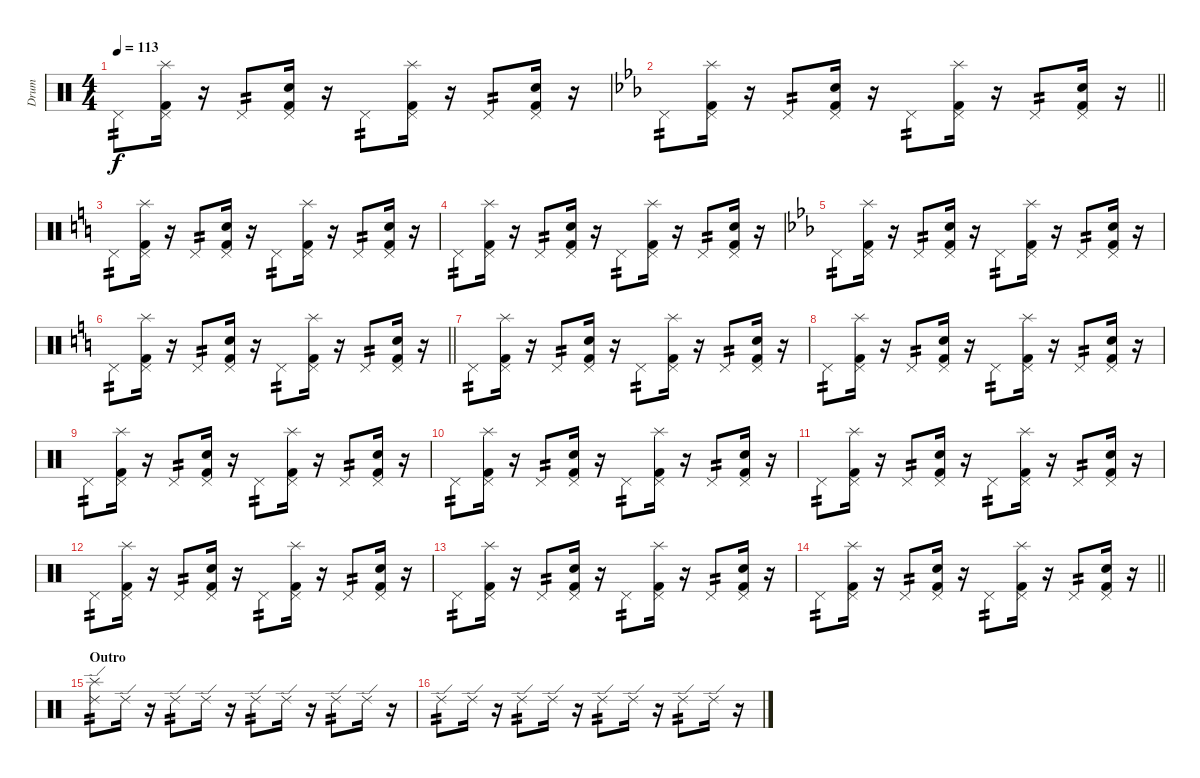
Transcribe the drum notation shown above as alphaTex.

\track ("Drum" "Drum") {instrument percussion}
\staff {score}
\articulation defaults
\ts (4 4)
\tempo 113
\clef neutral
\ks c "Pedal Hi-Hat (hit)".8{tp 2 dy f}
("Pedal Hi-Hat (hit)" "Kick (hit) 2" "Splash (hit)").16 r.16 "Pedal Hi-Hat (hit)".8{tp 2} ("Pedal Hi-Hat (hit)" "Kick (hit) 2" "Snare (hit) 2").16 r.16 "Pedal Hi-Hat (hit)".8{tp 2} ("Pedal Hi-Hat (hit)" "Kick (hit) 2" "Splash (hit)").16 r.16 "Pedal Hi-Hat (hit)".8{tp 2} ("Pedal Hi-Hat (hit)" "Kick (hit) 2" "Snare (hit) 2").16 r.16 |
\barLineRight lightlight
\ks eb "Pedal Hi-Hat (hit)".8{tp 2}
("Pedal Hi-Hat (hit)" "Kick (hit) 2" "Splash (hit)").16 r.16 "Pedal Hi-Hat (hit)".8{tp 2} ("Pedal Hi-Hat (hit)" "Kick (hit) 2" "Snare (hit) 2").16 r.16 "Pedal Hi-Hat (hit)".8{tp 2} ("Pedal Hi-Hat (hit)" "Kick (hit) 2" "Splash (hit)").16 r.16 "Pedal Hi-Hat (hit)".8{tp 2} ("Pedal Hi-Hat (hit)" "Kick (hit) 2" "Snare (hit) 2").16 r.16 |
\ks c "Pedal Hi-Hat (hit)".8{tp 2}
("Pedal Hi-Hat (hit)" "Kick (hit) 2" "Splash (hit)").16 r.16 "Pedal Hi-Hat (hit)".8{tp 2} ("Pedal Hi-Hat (hit)" "Kick (hit) 2" "Snare (hit) 2").16 r.16 "Pedal Hi-Hat (hit)".8{tp 2} ("Pedal Hi-Hat (hit)" "Kick (hit) 2" "Splash (hit)").16 r.16 "Pedal Hi-Hat (hit)".8{tp 2} ("Pedal Hi-Hat (hit)" "Kick (hit) 2" "Snare (hit) 2").16 r.16 |
"Pedal Hi-Hat (hit)".8{tp 2} ("Pedal Hi-Hat (hit)" "Kick (hit) 2" "Splash (hit)").16 r.16 "Pedal Hi-Hat (hit)".8{tp 2} ("Pedal Hi-Hat (hit)" "Kick (hit) 2" "Snare (hit) 2").16 r.16 "Pedal Hi-Hat (hit)".8{tp 2} ("Pedal Hi-Hat (hit)" "Kick (hit) 2" "Splash (hit)").16 r.16 "Pedal Hi-Hat (hit)".8{tp 2} ("Pedal Hi-Hat (hit)" "Kick (hit) 2" "Snare (hit) 2").16 r.16 |
\ks eb "Pedal Hi-Hat (hit)".8{tp 2}
("Pedal Hi-Hat (hit)" "Kick (hit) 2" "Splash (hit)").16 r.16 "Pedal Hi-Hat (hit)".8{tp 2} ("Pedal Hi-Hat (hit)" "Kick (hit) 2" "Snare (hit) 2").16 r.16 "Pedal Hi-Hat (hit)".8{tp 2} ("Pedal Hi-Hat (hit)" "Kick (hit) 2" "Splash (hit)").16 r.16 "Pedal Hi-Hat (hit)".8{tp 2} ("Pedal Hi-Hat (hit)" "Kick (hit) 2" "Snare (hit) 2").16 r.16 |
\barLineRight lightlight
\ks c "Pedal Hi-Hat (hit)".8{tp 2}
("Pedal Hi-Hat (hit)" "Kick (hit) 2" "Splash (hit)").16 r.16 "Pedal Hi-Hat (hit)".8{tp 2} ("Pedal Hi-Hat (hit)" "Kick (hit) 2" "Snare (hit) 2").16 r.16 "Pedal Hi-Hat (hit)".8{tp 2} ("Pedal Hi-Hat (hit)" "Kick (hit) 2" "Splash (hit)").16 r.16 "Pedal Hi-Hat (hit)".8{tp 2} ("Pedal Hi-Hat (hit)" "Kick (hit) 2" "Snare (hit) 2").16 r.16 |
"Pedal Hi-Hat (hit)".8{tp 2} ("Pedal Hi-Hat (hit)" "Kick (hit) 2" "Splash (hit)").16 r.16 "Pedal Hi-Hat (hit)".8{tp 2} ("Pedal Hi-Hat (hit)" "Kick (hit) 2" "Snare (hit) 2").16 r.16 "Pedal Hi-Hat (hit)".8{tp 2} ("Pedal Hi-Hat (hit)" "Kick (hit) 2" "Splash (hit)").16 r.16 "Pedal Hi-Hat (hit)".8{tp 2} ("Pedal Hi-Hat (hit)" "Kick (hit) 2" "Snare (hit) 2").16 r.16 |
"Pedal Hi-Hat (hit)".8{tp 2} ("Pedal Hi-Hat (hit)" "Kick (hit) 2" "Splash (hit)").16 r.16 "Pedal Hi-Hat (hit)".8{tp 2} ("Pedal Hi-Hat (hit)" "Kick (hit) 2" "Snare (hit) 2").16 r.16 "Pedal Hi-Hat (hit)".8{tp 2} ("Pedal Hi-Hat (hit)" "Kick (hit) 2" "Splash (hit)").16 r.16 "Pedal Hi-Hat (hit)".8{tp 2} ("Pedal Hi-Hat (hit)" "Kick (hit) 2" "Snare (hit) 2").16 r.16 |
"Pedal Hi-Hat (hit)".8{tp 2} ("Pedal Hi-Hat (hit)" "Kick (hit) 2" "Splash (hit)").16 r.16 "Pedal Hi-Hat (hit)".8{tp 2} ("Pedal Hi-Hat (hit)" "Kick (hit) 2" "Snare (hit) 2").16 r.16 "Pedal Hi-Hat (hit)".8{tp 2} ("Pedal Hi-Hat (hit)" "Kick (hit) 2" "Splash (hit)").16 r.16 "Pedal Hi-Hat (hit)".8{tp 2} ("Pedal Hi-Hat (hit)" "Kick (hit) 2" "Snare (hit) 2").16 r.16 |
"Pedal Hi-Hat (hit)".8{tp 2} ("Pedal Hi-Hat (hit)" "Kick (hit) 2" "Splash (hit)").16 r.16 "Pedal Hi-Hat (hit)".8{tp 2} ("Pedal Hi-Hat (hit)" "Kick (hit) 2" "Snare (hit) 2").16 r.16 "Pedal Hi-Hat (hit)".8{tp 2} ("Pedal Hi-Hat (hit)" "Kick (hit) 2" "Splash (hit)").16 r.16 "Pedal Hi-Hat (hit)".8{tp 2} ("Pedal Hi-Hat (hit)" "Kick (hit) 2" "Snare (hit) 2").16 r.16 |
"Pedal Hi-Hat (hit)".8{tp 2} ("Pedal Hi-Hat (hit)" "Kick (hit) 2" "Splash (hit)").16 r.16 "Pedal Hi-Hat (hit)".8{tp 2} ("Pedal Hi-Hat (hit)" "Kick (hit) 2" "Snare (hit) 2").16 r.16 "Pedal Hi-Hat (hit)".8{tp 2} ("Pedal Hi-Hat (hit)" "Kick (hit) 2" "Splash (hit)").16 r.16 "Pedal Hi-Hat (hit)".8{tp 2} ("Pedal Hi-Hat (hit)" "Kick (hit) 2" "Snare (hit) 2").16 r.16 |
"Pedal Hi-Hat (hit)".8{tp 2} ("Pedal Hi-Hat (hit)" "Kick (hit) 2" "Splash (hit)").16 r.16 "Pedal Hi-Hat (hit)".8{tp 2} ("Pedal Hi-Hat (hit)" "Kick (hit) 2" "Snare (hit) 2").16 r.16 "Pedal Hi-Hat (hit)".8{tp 2} ("Pedal Hi-Hat (hit)" "Kick (hit) 2" "Splash (hit)").16 r.16 "Pedal Hi-Hat (hit)".8{tp 2} ("Pedal Hi-Hat (hit)" "Kick (hit) 2" "Snare (hit) 2").16 r.16 |
"Pedal Hi-Hat (hit)".8{tp 2} ("Pedal Hi-Hat (hit)" "Kick (hit) 2" "Splash (hit)").16 r.16 "Pedal Hi-Hat (hit)".8{tp 2} ("Pedal Hi-Hat (hit)" "Kick (hit) 2" "Snare (hit) 2").16 r.16 "Pedal Hi-Hat (hit)".8{tp 2} ("Pedal Hi-Hat (hit)" "Kick (hit) 2" "Splash (hit)").16 r.16 "Pedal Hi-Hat (hit)".8{tp 2} ("Pedal Hi-Hat (hit)" "Kick (hit) 2" "Snare (hit) 2").16 r.16 |
\barLineRight lightlight "Pedal Hi-Hat (hit)".8{tp 2}
("Pedal Hi-Hat (hit)" "Kick (hit) 2" "Splash (hit)").16 r.16 "Pedal Hi-Hat (hit)".8{tp 2} ("Pedal Hi-Hat (hit)" "Kick (hit) 2" "Snare (hit) 2").16 r.16 "Pedal Hi-Hat (hit)".8{tp 2} ("Pedal Hi-Hat (hit)" "Kick (hit) 2" "Splash (hit)").16 r.16 "Pedal Hi-Hat (hit)".8{tp 2} ("Pedal Hi-Hat (hit)" "Kick (hit) 2" "Snare (hit) 2").16 r.16 |
\section ("" "Outro")
("Ride (edge) 2" "Splash (hit)").8{tp 2} "Ride (edge) 2".16 r.16 "Ride (edge) 2".8{tp 2} "Ride (edge) 2".16 r.16 "Ride (edge) 2".8{tp 2} "Ride (edge) 2".16 r.16 "Ride (edge) 2".8{tp 2} "Ride (edge) 2".16 r.16 |
"Ride (edge) 2".8{tp 2} "Ride (edge) 2".16 r.16 "Ride (edge) 2".8{tp 2} "Ride (edge) 2".16 r.16 "Ride (edge) 2".8{tp 2} "Ride (edge) 2".16 r.16 "Ride (edge) 2".8{tp 2} "Ride (edge) 2".16 r.16
